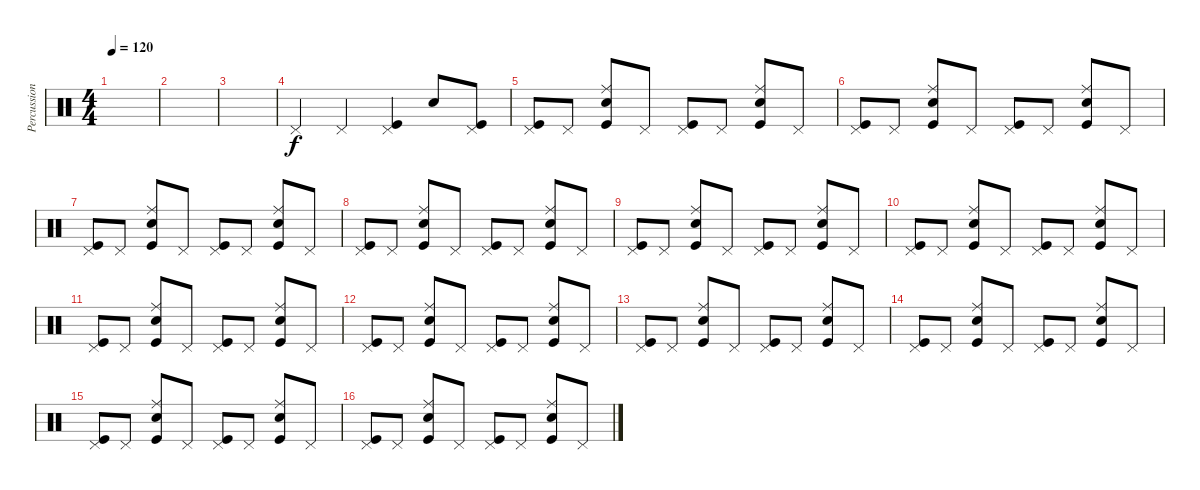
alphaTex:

\track ("Percussions" "Percussion") {instrument percussion}
\staff {score}
\articulation defaults
\ts (4 4)
\tempo 120
\clef neutral
\ks c
|
|
|
"Pedal Hi-Hat (hit)".4 "Pedal Hi-Hat (hit)".4 ("Kick (hit)" "Pedal Hi-Hat (hit)").4 "Snare (hit) 2".8 ("Kick (hit)" "Pedal Hi-Hat (hit)").8 |
("Pedal Hi-Hat (hit)" "Kick (hit)").8 "Pedal Hi-Hat (hit)".8 ("Snare (hit) 2" "Ride (middle)" "Kick (hit)").8 "Pedal Hi-Hat (hit)".8 ("Pedal Hi-Hat (hit)" "Kick (hit)").8 "Pedal Hi-Hat (hit)".8 ("Snare (hit) 2" "Ride (middle)" "Kick (hit)").8 "Pedal Hi-Hat (hit)".8 |
("Pedal Hi-Hat (hit)" "Kick (hit)").8 "Pedal Hi-Hat (hit)".8 ("Snare (hit) 2" "Ride (middle)" "Kick (hit)").8 "Pedal Hi-Hat (hit)".8 ("Pedal Hi-Hat (hit)" "Kick (hit)").8 "Pedal Hi-Hat (hit)".8 ("Snare (hit) 2" "Ride (middle)" "Kick (hit)").8 "Pedal Hi-Hat (hit)".8 |
("Pedal Hi-Hat (hit)" "Kick (hit)").8 "Pedal Hi-Hat (hit)".8 ("Snare (hit) 2" "Ride (middle)" "Kick (hit)").8 "Pedal Hi-Hat (hit)".8 ("Pedal Hi-Hat (hit)" "Kick (hit)").8 "Pedal Hi-Hat (hit)".8 ("Snare (hit) 2" "Ride (middle)" "Kick (hit)").8 "Pedal Hi-Hat (hit)".8 |
("Pedal Hi-Hat (hit)" "Kick (hit)").8 "Pedal Hi-Hat (hit)".8 ("Snare (hit) 2" "Ride (middle)" "Kick (hit)").8 "Pedal Hi-Hat (hit)".8 ("Pedal Hi-Hat (hit)" "Kick (hit)").8 "Pedal Hi-Hat (hit)".8 ("Snare (hit) 2" "Ride (middle)" "Kick (hit)").8 "Pedal Hi-Hat (hit)".8 |
("Pedal Hi-Hat (hit)" "Kick (hit)").8 "Pedal Hi-Hat (hit)".8 ("Snare (hit) 2" "Ride (middle)" "Kick (hit)").8 "Pedal Hi-Hat (hit)".8 ("Pedal Hi-Hat (hit)" "Kick (hit)").8 "Pedal Hi-Hat (hit)".8 ("Snare (hit) 2" "Ride (middle)" "Kick (hit)").8 "Pedal Hi-Hat (hit)".8 |
("Pedal Hi-Hat (hit)" "Kick (hit)").8 "Pedal Hi-Hat (hit)".8 ("Snare (hit) 2" "Ride (middle)" "Kick (hit)").8 "Pedal Hi-Hat (hit)".8 ("Pedal Hi-Hat (hit)" "Kick (hit)").8 "Pedal Hi-Hat (hit)".8 ("Snare (hit) 2" "Ride (middle)" "Kick (hit)").8 "Pedal Hi-Hat (hit)".8 |
("Pedal Hi-Hat (hit)" "Kick (hit)").8 "Pedal Hi-Hat (hit)".8 ("Snare (hit) 2" "Ride (middle)" "Kick (hit)").8 "Pedal Hi-Hat (hit)".8 ("Pedal Hi-Hat (hit)" "Kick (hit)").8 "Pedal Hi-Hat (hit)".8 ("Snare (hit) 2" "Ride (middle)" "Kick (hit)").8 "Pedal Hi-Hat (hit)".8 |
("Pedal Hi-Hat (hit)" "Kick (hit)").8 "Pedal Hi-Hat (hit)".8 ("Snare (hit) 2" "Ride (middle)" "Kick (hit)").8 "Pedal Hi-Hat (hit)".8 ("Pedal Hi-Hat (hit)" "Kick (hit)").8 "Pedal Hi-Hat (hit)".8 ("Snare (hit) 2" "Ride (middle)" "Kick (hit)").8 "Pedal Hi-Hat (hit)".8 |
("Pedal Hi-Hat (hit)" "Kick (hit)").8 "Pedal Hi-Hat (hit)".8 ("Snare (hit) 2" "Ride (middle)" "Kick (hit)").8 "Pedal Hi-Hat (hit)".8 ("Pedal Hi-Hat (hit)" "Kick (hit)").8 "Pedal Hi-Hat (hit)".8 ("Snare (hit) 2" "Ride (middle)" "Kick (hit)").8 "Pedal Hi-Hat (hit)".8 |
("Pedal Hi-Hat (hit)" "Kick (hit)").8 "Pedal Hi-Hat (hit)".8 ("Snare (hit) 2" "Ride (middle)" "Kick (hit)").8 "Pedal Hi-Hat (hit)".8 ("Pedal Hi-Hat (hit)" "Kick (hit)").8 "Pedal Hi-Hat (hit)".8 ("Snare (hit) 2" "Ride (middle)" "Kick (hit)").8 "Pedal Hi-Hat (hit)".8 |
("Pedal Hi-Hat (hit)" "Kick (hit)").8 "Pedal Hi-Hat (hit)".8 ("Snare (hit) 2" "Ride (middle)" "Kick (hit)").8 "Pedal Hi-Hat (hit)".8 ("Pedal Hi-Hat (hit)" "Kick (hit)").8 "Pedal Hi-Hat (hit)".8 ("Snare (hit) 2" "Ride (middle)" "Kick (hit)").8 "Pedal Hi-Hat (hit)".8 |
("Pedal Hi-Hat (hit)" "Kick (hit)").8 "Pedal Hi-Hat (hit)".8 ("Snare (hit) 2" "Ride (middle)" "Kick (hit)").8 "Pedal Hi-Hat (hit)".8 ("Pedal Hi-Hat (hit)" "Kick (hit)").8 "Pedal Hi-Hat (hit)".8 ("Snare (hit) 2" "Ride (middle)" "Kick (hit)").8 "Pedal Hi-Hat (hit)".8
